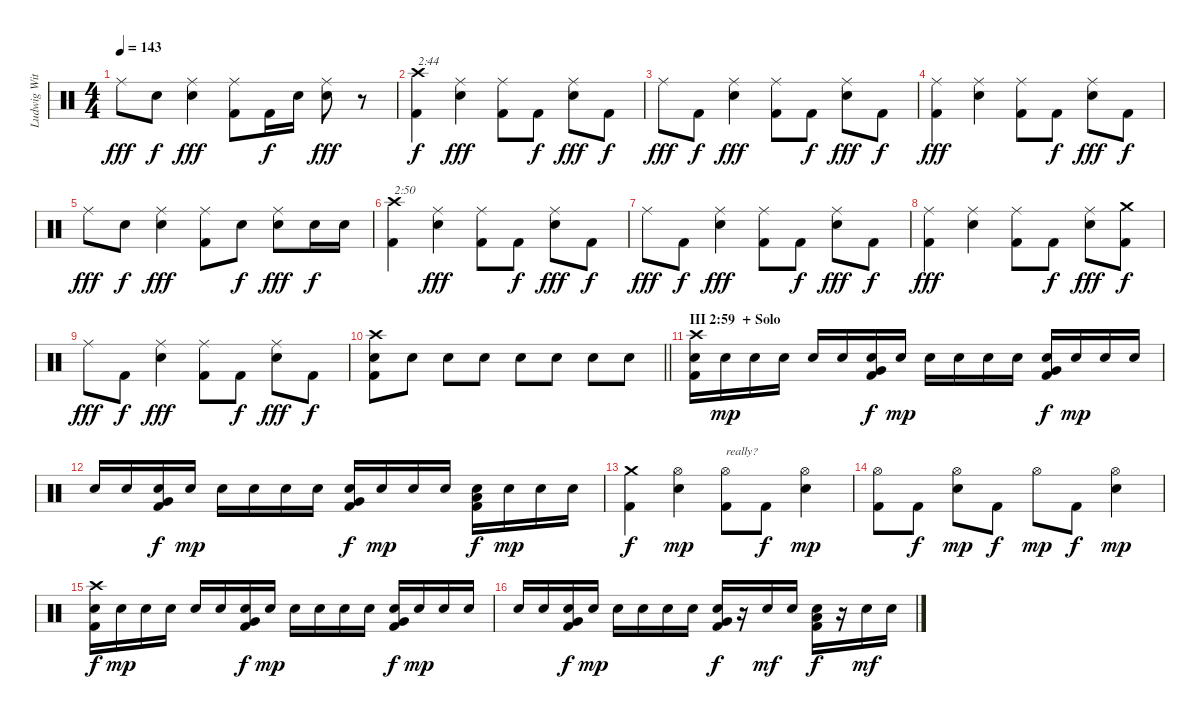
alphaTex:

\track ("Ludwig Witt (Drums)" "Ludwig Wit") {instrument percussion}
\staff {score}
\articulation defaults
\ts (4 4)
\tempo 143
\clef neutral
\ks c "Ride (middle)".8{dy fff} "Electric Snare (hit)".8{dy f}
("Ride (middle)" "Electric Snare (hit)").4{dy fff} ("Ride (middle)" "Kick (hit) 2").8 "Kick (hit) 2".16{dy f} "Electric Snare (hit)".16 ("Ride (middle)" "Electric Snare (hit)").8{dy fff} r.8 |
("Crash high (hit)" "Kick (hit) 2").4{txt "2:44" dy f} ("Ride (middle)" "Electric Snare (hit)").4{dy fff} ("Ride (middle)" "Kick (hit) 2").8 "Kick (hit) 2".8{dy f} ("Ride (middle)" "Electric Snare (hit)").8{dy fff} "Kick (hit) 2".8{dy f} |
"Ride (middle)".8{dy fff} "Kick (hit) 2".8{dy f} ("Ride (middle)" "Electric Snare (hit)").4{dy fff} ("Ride (middle)" "Kick (hit) 2").8 "Kick (hit) 2".8{dy f} ("Ride (middle)" "Electric Snare (hit)").8{dy fff} "Kick (hit) 2".8{dy f} |
("Ride (middle)" "Kick (hit) 2").4{dy fff} ("Ride (middle)" "Electric Snare (hit)").4 ("Ride (middle)" "Kick (hit) 2").8 "Kick (hit) 2".8{dy f} ("Ride (middle)" "Electric Snare (hit)").8{dy fff} "Kick (hit) 2".8{dy f} |
"Ride (middle)".8{dy fff} "Electric Snare (hit)".8{dy f} ("Ride (middle)" "Electric Snare (hit)").4{dy fff} ("Ride (middle)" "Kick (hit) 2").8 "Electric Snare (hit)".8{dy f} ("Ride (middle)" "Electric Snare (hit)").8{dy fff} "Electric Snare (hit)".16{dy f} "Electric Snare (hit)".16 |
("Crash high (hit)" "Kick (hit) 2").4{txt "2:50"} ("Ride (middle)" "Electric Snare (hit)").4{dy fff} ("Ride (middle)" "Kick (hit) 2").8 "Kick (hit) 2".8{dy f} ("Ride (middle)" "Electric Snare (hit)").8{dy fff} "Kick (hit) 2".8{dy f} |
"Ride (middle)".8{dy fff} "Kick (hit) 2".8{dy f} ("Ride (middle)" "Electric Snare (hit)").4{dy fff} ("Ride (middle)" "Kick (hit) 2").8 "Kick (hit) 2".8{dy f} ("Ride (middle)" "Electric Snare (hit)").8{dy fff} "Kick (hit) 2".8{dy f} |
("Ride (middle)" "Kick (hit) 2").4{dy fff} ("Ride (middle)" "Electric Snare (hit)").4 ("Ride (middle)" "Kick (hit) 2").8 "Kick (hit) 2".8{dy f} ("Ride (middle)" "Electric Snare (hit)").8{dy fff} ("Crash medium (hit)" "Kick (hit) 2").8{dy f} |
"Ride (middle)".8{dy fff} "Kick (hit) 2".8{dy f} ("Ride (middle)" "Electric Snare (hit)").4{dy fff} ("Ride (middle)" "Kick (hit) 2").8 "Kick (hit) 2".8{dy f} ("Ride (middle)" "Electric Snare (hit)").8{dy fff} "Kick (hit) 2".8{dy f} |
\barLineRight lightlight
("Crash high (hit)" "Electric Snare (hit)" "Kick (hit) 2").8 "Electric Snare (hit)".8 "Electric Snare (hit)".8 "Electric Snare (hit)".8 "Electric Snare (hit)".8 "Electric Snare (hit)".8 "Electric Snare (hit)".8 "Electric Snare (hit)".8 |
\section ("" "III 2:59  + Solo")
("Crash high (hit)" "Electric Snare (hit)" "Kick (hit) 2").16 "Electric Snare (hit)".16{dy mp} "Electric Snare (hit)".16 "Electric Snare (hit)".16 "Electric Snare (hit)".16 "Electric Snare (hit)".16 ("Electric Snare (hit)" "Very Low Tom (hit)" "Kick (hit) 2").16{dy f} "Electric Snare (hit)".16{dy mp} "Electric Snare (hit)".16 "Electric Snare (hit)".16 "Electric Snare (hit)".16 "Electric Snare (hit)".16 ("Electric Snare (hit)" "Very Low Tom (hit)" "Kick (hit) 2").16{dy f} "Electric Snare (hit)".16{dy mp} "Electric Snare (hit)".16 "Electric Snare (hit)".16 |
"Electric Snare (hit)".16 "Electric Snare (hit)".16 ("Electric Snare (hit)" "Very Low Tom (hit)" "Kick (hit) 2").16{dy f} "Electric Snare (hit)".16{dy mp} "Electric Snare (hit)".16 "Electric Snare (hit)".16 "Electric Snare (hit)".16 "Electric Snare (hit)".16 ("Electric Snare (hit)" "Very Low Tom (hit)" "Kick (hit) 2").16{dy f} "Electric Snare (hit)".16{dy mp} "Electric Snare (hit)".16 "Electric Snare (hit)".16 ("Electric Snare (hit)" "Low Floor Tom (hit)" "Kick (hit) 2").16{dy f} "Electric Snare (hit)".16{dy mp} "Electric Snare (hit)".16 "Electric Snare (hit)".16 |
("Crash medium (hit)" "Kick (hit) 2").4{dy f} ("Hi-Hat (open)" "Electric Snare (hit)").4{dy mp} ("Hi-Hat (open)" "Kick (hit) 2").8{txt "really?"} "Kick (hit) 2".8{dy f} ("Hi-Hat (open)" "Electric Snare (hit)").4{dy mp} |
("Hi-Hat (open)" "Kick (hit) 2").8 "Kick (hit) 2".8{dy f} ("Hi-Hat (open)" "Electric Snare (hit)").8{dy mp} "Kick (hit) 2".8{dy f} "Hi-Hat (open)".8{dy mp} "Kick (hit) 2".8{dy f} ("Hi-Hat (open)" "Electric Snare (hit)").4{dy mp} |
("Crash high (hit)" "Electric Snare (hit)" "Kick (hit) 2").16{dy f} "Electric Snare (hit)".16{dy mp} "Electric Snare (hit)".16 "Electric Snare (hit)".16 "Electric Snare (hit)".16 "Electric Snare (hit)".16 ("Electric Snare (hit)" "Very Low Tom (hit)" "Kick (hit) 2").16{dy f} "Electric Snare (hit)".16{dy mp} "Electric Snare (hit)".16 "Electric Snare (hit)".16 "Electric Snare (hit)".16 "Electric Snare (hit)".16 ("Electric Snare (hit)" "Very Low Tom (hit)" "Kick (hit) 2").16{dy f} "Electric Snare (hit)".16{dy mp} "Electric Snare (hit)".16 "Electric Snare (hit)".16 |
"Electric Snare (hit)".16 "Electric Snare (hit)".16 ("Electric Snare (hit)" "Very Low Tom (hit)" "Kick (hit) 2").16{dy f} "Electric Snare (hit)".16{dy mp} "Electric Snare (hit)".16 "Electric Snare (hit)".16 "Electric Snare (hit)".16 "Electric Snare (hit)".16 ("Electric Snare (hit)" "Very Low Tom (hit)" "Kick (hit) 2").16{dy f} r.16 "Electric Snare (hit)".16{dy mf} "Electric Snare (hit)".16 ("Electric Snare (hit)" "Low Floor Tom (hit)" "Kick (hit) 2").16{dy f} r.16 "Electric Snare (hit)".16{dy mf} "Electric Snare (hit)".16
